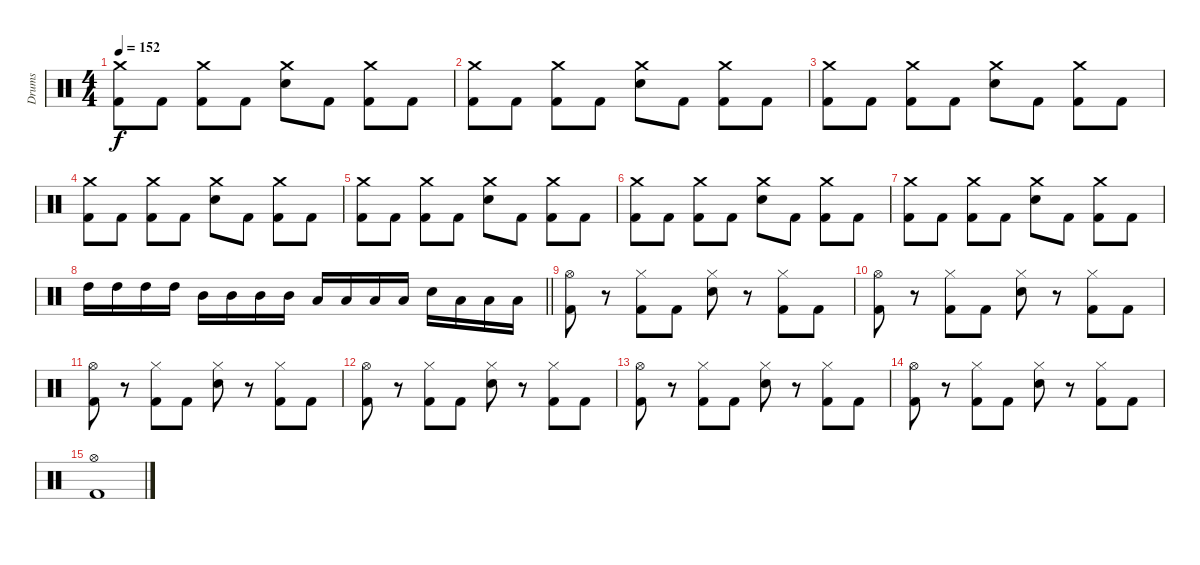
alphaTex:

\track ("Drums" "Drums") {instrument percussion}
\staff {score}
\articulation defaults
\ts (4 4)
\tempo 152
\clef neutral
\ks c
("Crash medium (hit)" "Kick (hit) 2").8{dy f} "Kick (hit) 2".8 ("Crash medium (hit)" "Kick (hit) 2").8 "Kick (hit) 2".8 ("Crash medium (hit)" "Electric Snare (hit)").8 "Kick (hit) 2".8 ("Crash medium (hit)" "Kick (hit) 2").8 "Kick (hit) 2".8 |
("Crash medium (hit)" "Kick (hit) 2").8 "Kick (hit) 2".8 ("Crash medium (hit)" "Kick (hit) 2").8 "Kick (hit) 2".8 ("Crash medium (hit)" "Electric Snare (hit)").8 "Kick (hit) 2".8 ("Crash medium (hit)" "Kick (hit) 2").8 "Kick (hit) 2".8 |
("Crash medium (hit)" "Kick (hit) 2").8 "Kick (hit) 2".8 ("Crash medium (hit)" "Kick (hit) 2").8 "Kick (hit) 2".8 ("Crash medium (hit)" "Electric Snare (hit)").8 "Kick (hit) 2".8 ("Crash medium (hit)" "Kick (hit) 2").8 "Kick (hit) 2".8 |
("Crash medium (hit)" "Kick (hit) 2").8 "Kick (hit) 2".8 ("Crash medium (hit)" "Kick (hit) 2").8 "Kick (hit) 2".8 ("Crash medium (hit)" "Electric Snare (hit)").8 "Kick (hit) 2".8 ("Crash medium (hit)" "Kick (hit) 2").8 "Kick (hit) 2".8 |
("Crash medium (hit)" "Kick (hit) 2").8 "Kick (hit) 2".8 ("Crash medium (hit)" "Kick (hit) 2").8 "Kick (hit) 2".8 ("Crash medium (hit)" "Electric Snare (hit)").8 "Kick (hit) 2".8 ("Crash medium (hit)" "Kick (hit) 2").8 "Kick (hit) 2".8 |
("Crash medium (hit)" "Kick (hit) 2").8 "Kick (hit) 2".8 ("Crash medium (hit)" "Kick (hit) 2").8 "Kick (hit) 2".8 ("Crash medium (hit)" "Electric Snare (hit)").8 "Kick (hit) 2".8 ("Crash medium (hit)" "Kick (hit) 2").8 "Kick (hit) 2".8 |
("Crash medium (hit)" "Kick (hit) 2").8 "Kick (hit) 2".8 ("Crash medium (hit)" "Kick (hit) 2").8 "Kick (hit) 2".8 ("Crash medium (hit)" "Electric Snare (hit)").8 "Kick (hit) 2".8 ("Crash medium (hit)" "Kick (hit) 2").8 "Kick (hit) 2".8 |
\barLineRight lightlight "High Tom (hit)".16 "High Tom (hit)".16 "High Tom (hit)".16 "High Tom (hit)".16 "Mid Tom (hit)".16 "Mid Tom (hit)".16 "Mid Tom (hit)".16 "Mid Tom (hit)".16 "Low Tom (hit)".16 "Low Tom (hit)".16 "Low Tom (hit)".16 "Low Tom (hit)".16 "Electric Snare (hit)".16 "Low Tom (hit)".16 "Low Tom (hit)".16 "Low Tom (hit)".16
|
("Hi-Hat (open)" "Kick (hit) 2").8 r.8 ("Hi-Hat (closed)" "Kick (hit) 2").8 "Kick (hit) 2".8 ("Hi-Hat (closed)" "Electric Snare (hit)").8 r.8 ("Hi-Hat (closed)" "Kick (hit) 2").8 "Kick (hit) 2".8 |
("Hi-Hat (open)" "Kick (hit) 2").8 r.8 ("Hi-Hat (closed)" "Kick (hit) 2").8 "Kick (hit) 2".8 ("Hi-Hat (closed)" "Electric Snare (hit)").8 r.8 ("Hi-Hat (closed)" "Kick (hit) 2").8 "Kick (hit) 2".8 |
("Hi-Hat (open)" "Kick (hit) 2").8 r.8 ("Hi-Hat (closed)" "Kick (hit) 2").8 "Kick (hit) 2".8 ("Hi-Hat (closed)" "Electric Snare (hit)").8 r.8 ("Hi-Hat (closed)" "Kick (hit) 2").8 "Kick (hit) 2".8 |
("Hi-Hat (open)" "Kick (hit) 2").8 r.8 ("Hi-Hat (closed)" "Kick (hit) 2").8 "Kick (hit) 2".8 ("Hi-Hat (closed)" "Electric Snare (hit)").8 r.8 ("Hi-Hat (closed)" "Kick (hit) 2").8 "Kick (hit) 2".8 |
("Hi-Hat (open)" "Kick (hit) 2").8 r.8 ("Hi-Hat (closed)" "Kick (hit) 2").8 "Kick (hit) 2".8 ("Hi-Hat (closed)" "Electric Snare (hit)").8 r.8 ("Hi-Hat (closed)" "Kick (hit) 2").8 "Kick (hit) 2".8 |
("Hi-Hat (open)" "Kick (hit) 2").8 r.8 ("Hi-Hat (closed)" "Kick (hit) 2").8 "Kick (hit) 2".8 ("Hi-Hat (closed)" "Electric Snare (hit)").8 r.8 ("Hi-Hat (closed)" "Kick (hit) 2").8 "Kick (hit) 2".8 |
("Hi-Hat (open)" "Kick (hit) 2").1
